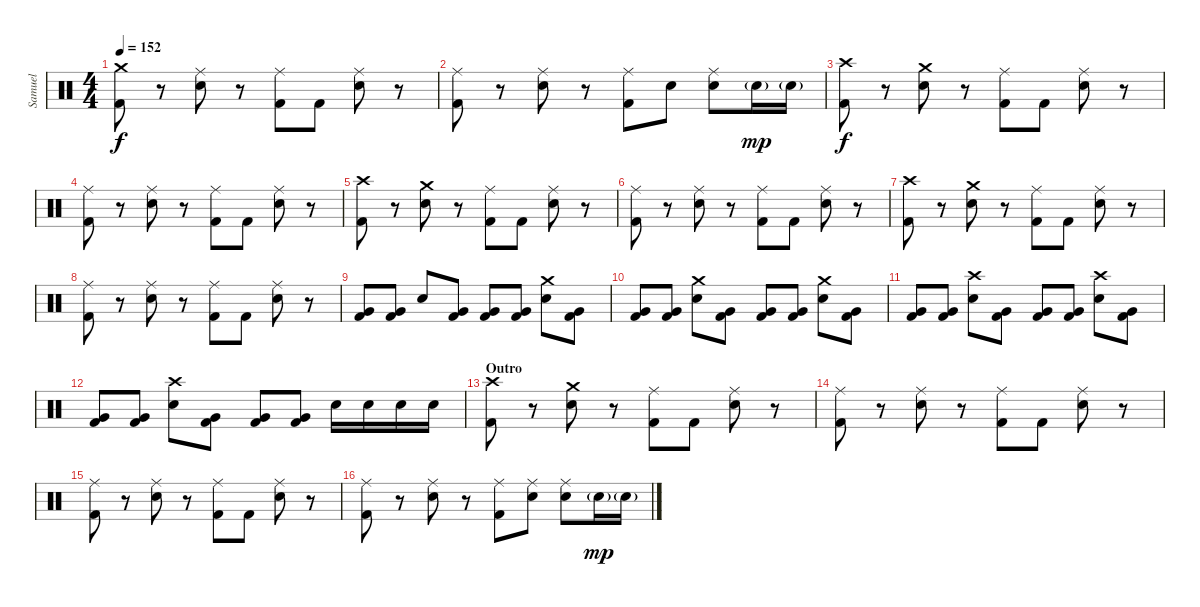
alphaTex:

\track ("Samuel" "Samuel") {instrument percussion}
\staff {score}
\articulation defaults
\ts (4 4)
\tempo 152
\clef neutral
\ks c
("Crash medium (hit)" "Kick (hit) 2").8{dy f} r.8 ("Ride (middle)" "Snare (hit) 2").8 r.8 ("Ride (middle)" "Kick (hit) 2").8 "Kick (hit) 2".8 ("Ride (middle)" "Snare (hit) 2").8 r.8 |
("Ride (middle)" "Kick (hit) 2").8 r.8 ("Ride (middle)" "Snare (hit) 2").8 r.8 ("Ride (middle)" "Kick (hit) 2").8 "Snare (hit) 2".8 ("Ride (middle)" "Snare (hit) 2").8 "Snare (hit) 2"{g}.16{dy mp} "Snare (hit) 2"{g}.16 |
("Crash high (hit)" "Kick (hit) 2").8{dy f} r.8 ("Crash medium (hit)" "Snare (hit) 2").8 r.8 ("Ride (middle)" "Kick (hit) 2").8 "Kick (hit) 2".8 ("Ride (middle)" "Snare (hit) 2").8 r.8 |
("Ride (middle)" "Kick (hit) 2").8 r.8 ("Ride (middle)" "Snare (hit) 2").8 r.8 ("Ride (middle)" "Kick (hit) 2").8 "Kick (hit) 2".8 ("Ride (middle)" "Snare (hit) 2").8 r.8 |
("Crash high (hit)" "Kick (hit) 2").8 r.8 ("Crash medium (hit)" "Snare (hit) 2").8 r.8 ("Ride (middle)" "Kick (hit) 2").8 "Kick (hit) 2".8 ("Ride (middle)" "Snare (hit) 2").8 r.8 |
("Ride (middle)" "Kick (hit) 2").8 r.8 ("Ride (middle)" "Snare (hit) 2").8 r.8 ("Ride (middle)" "Kick (hit) 2").8 "Kick (hit) 2".8 ("Ride (middle)" "Snare (hit) 2").8 r.8 |
("Crash high (hit)" "Kick (hit) 2").8 r.8 ("Crash medium (hit)" "Snare (hit) 2").8 r.8 ("Ride (middle)" "Kick (hit) 2").8 "Kick (hit) 2".8 ("Ride (middle)" "Snare (hit) 2").8 r.8 |
("Ride (middle)" "Kick (hit) 2").8 r.8 ("Ride (middle)" "Snare (hit) 2").8 r.8 ("Ride (middle)" "Kick (hit) 2").8 "Kick (hit) 2".8 ("Ride (middle)" "Snare (hit) 2").8 r.8 |
("Very Low Tom (hit)" "Kick (hit) 2").8 ("Very Low Tom (hit)" "Kick (hit) 2").8 "Snare (hit) 2".8 ("Very Low Tom (hit)" "Kick (hit) 2").8 ("Very Low Tom (hit)" "Kick (hit) 2").8 ("Very Low Tom (hit)" "Kick (hit) 2").8 ("Crash medium (hit)" "Snare (hit) 2").8 ("Very Low Tom (hit)" "Kick (hit) 2").8 |
("Very Low Tom (hit)" "Kick (hit) 2").8 ("Very Low Tom (hit)" "Kick (hit) 2").8 ("Crash medium (hit)" "Snare (hit) 2").8 ("Very Low Tom (hit)" "Kick (hit) 2").8 ("Very Low Tom (hit)" "Kick (hit) 2").8 ("Very Low Tom (hit)" "Kick (hit) 2").8 ("Crash medium (hit)" "Snare (hit) 2").8 ("Very Low Tom (hit)" "Kick (hit) 2").8 |
("Very Low Tom (hit)" "Kick (hit) 2").8 ("Very Low Tom (hit)" "Kick (hit) 2").8 ("Crash high (hit)" "Snare (hit) 2").8 ("Very Low Tom (hit)" "Kick (hit) 2").8 ("Very Low Tom (hit)" "Kick (hit) 2").8 ("Very Low Tom (hit)" "Kick (hit) 2").8 ("Crash high (hit)" "Snare (hit) 2").8 ("Very Low Tom (hit)" "Kick (hit) 2").8 |
("Very Low Tom (hit)" "Kick (hit) 2").8 ("Very Low Tom (hit)" "Kick (hit) 2").8 ("Crash high (hit)" "Snare (hit) 2").8 ("Very Low Tom (hit)" "Kick (hit) 2").8 ("Very Low Tom (hit)" "Kick (hit) 2").8 ("Very Low Tom (hit)" "Kick (hit) 2").8 "Snare (hit) 2".16 "Snare (hit) 2".16 "Snare (hit) 2".16 "Snare (hit) 2".16 |
\section ("" "Outro")
("Crash high (hit)" "Kick (hit) 2").8 r.8 ("Crash medium (hit)" "Snare (hit) 2").8 r.8 ("Ride (middle)" "Kick (hit) 2").8 "Kick (hit) 2".8 ("Ride (middle)" "Snare (hit) 2").8 r.8 |
("Ride (middle)" "Kick (hit) 2").8 r.8 ("Ride (middle)" "Snare (hit) 2").8 r.8 ("Ride (middle)" "Kick (hit) 2").8 "Kick (hit) 2".8 ("Ride (middle)" "Snare (hit) 2").8 r.8 |
("Ride (middle)" "Kick (hit) 2").8 r.8 ("Ride (middle)" "Snare (hit) 2").8 r.8 ("Ride (middle)" "Kick (hit) 2").8 "Kick (hit) 2".8 ("Ride (middle)" "Snare (hit) 2").8 r.8 |
("Ride (middle)" "Kick (hit) 2").8 r.8 ("Ride (middle)" "Snare (hit) 2").8 r.8 ("Ride (middle)" "Kick (hit) 2").8 ("Ride (middle)" "Snare (hit) 2").8 ("Ride (middle)" "Snare (hit) 2").8 "Snare (hit) 2"{g}.16{dy mp} "Snare (hit) 2"{g}.16
